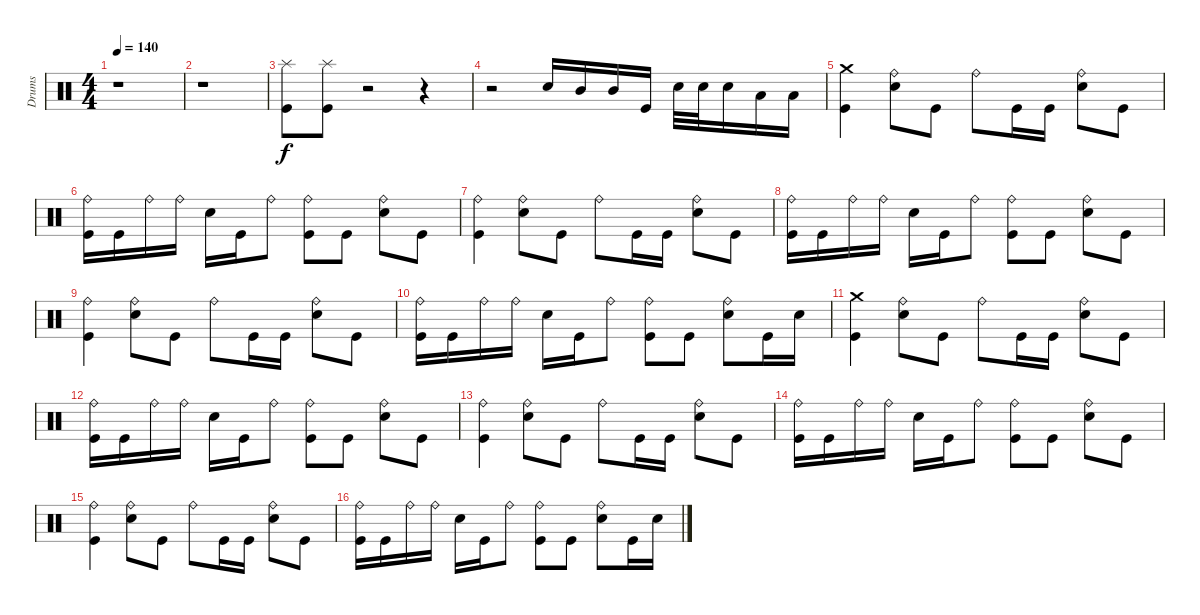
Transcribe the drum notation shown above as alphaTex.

\track ("Drums" "Drums") {instrument percussion}
\staff {score}
\articulation defaults
\ts (4 4)
\tempo 140
\clef neutral
\ks c
r.1{dy f} |
r.1 |
("Kick (hit)" "Splash (hit)").8 ("Kick (hit)" "Splash (hit)").8 r.2 r.4 |
r.2 "Electric Snare (hit)".16 "Mid Tom (hit)".16 "Mid Tom (hit)".16 "Kick (hit)".16 "Electric Snare (hit)".32 "Electric Snare (hit)".32 "Electric Snare (hit)".16 "Low Tom (hit)".16 "Low Tom (hit)".16 |
("Kick (hit)" "Crash medium (hit)").4 ("Electric Snare (hit)" "Ride (bell)").8 "Kick (hit)".8 "Ride (bell)".8 "Kick (hit)".16 "Kick (hit)".16 ("Electric Snare (hit)" "Ride (bell)").8 "Kick (hit)".8 |
("Kick (hit)" "Ride (bell)").16 "Kick (hit)".16 "Ride (bell)".16 "Ride (bell)".16 "Electric Snare (hit)".16 "Kick (hit)".16 "Ride (bell)".8 ("Kick (hit)" "Ride (bell)").8 "Kick (hit)".8 ("Electric Snare (hit)" "Ride (bell)").8 "Kick (hit)".8 |
("Kick (hit)" "Ride (bell)").4 ("Electric Snare (hit)" "Ride (bell)").8 "Kick (hit)".8 "Ride (bell)".8 "Kick (hit)".16 "Kick (hit)".16 ("Electric Snare (hit)" "Ride (bell)").8 "Kick (hit)".8 |
("Kick (hit)" "Ride (bell)").16 "Kick (hit)".16 "Ride (bell)".16 "Ride (bell)".16 "Electric Snare (hit)".16 "Kick (hit)".16 "Ride (bell)".8 ("Kick (hit)" "Ride (bell)").8 "Kick (hit)".8 ("Electric Snare (hit)" "Ride (bell)").8 "Kick (hit)".8 |
("Kick (hit)" "Ride (bell)").4 ("Electric Snare (hit)" "Ride (bell)").8 "Kick (hit)".8 "Ride (bell)".8 "Kick (hit)".16 "Kick (hit)".16 ("Electric Snare (hit)" "Ride (bell)").8 "Kick (hit)".8 |
("Kick (hit)" "Ride (bell)").16 "Kick (hit)".16 "Ride (bell)".16 "Ride (bell)".16 "Electric Snare (hit)".16 "Kick (hit)".16 "Ride (bell)".8 ("Kick (hit)" "Ride (bell)").8 "Kick (hit)".8 ("Electric Snare (hit)" "Ride (bell)").8 "Kick (hit)".16 "Electric Snare (hit)".16 |
("Kick (hit)" "Crash medium (hit)").4 ("Electric Snare (hit)" "Ride (bell)").8 "Kick (hit)".8 "Ride (bell)".8 "Kick (hit)".16 "Kick (hit)".16 ("Electric Snare (hit)" "Ride (bell)").8 "Kick (hit)".8 |
("Kick (hit)" "Ride (bell)").16 "Kick (hit)".16 "Ride (bell)".16 "Ride (bell)".16 "Electric Snare (hit)".16 "Kick (hit)".16 "Ride (bell)".8 ("Kick (hit)" "Ride (bell)").8 "Kick (hit)".8 ("Electric Snare (hit)" "Ride (bell)").8 "Kick (hit)".8 |
("Kick (hit)" "Ride (bell)").4 ("Electric Snare (hit)" "Ride (bell)").8 "Kick (hit)".8 "Ride (bell)".8 "Kick (hit)".16 "Kick (hit)".16 ("Electric Snare (hit)" "Ride (bell)").8 "Kick (hit)".8 |
("Kick (hit)" "Ride (bell)").16 "Kick (hit)".16 "Ride (bell)".16 "Ride (bell)".16 "Electric Snare (hit)".16 "Kick (hit)".16 "Ride (bell)".8 ("Kick (hit)" "Ride (bell)").8 "Kick (hit)".8 ("Electric Snare (hit)" "Ride (bell)").8 "Kick (hit)".8 |
("Kick (hit)" "Ride (bell)").4 ("Electric Snare (hit)" "Ride (bell)").8 "Kick (hit)".8 "Ride (bell)".8 "Kick (hit)".16 "Kick (hit)".16 ("Electric Snare (hit)" "Ride (bell)").8 "Kick (hit)".8 |
("Kick (hit)" "Ride (bell)").16 "Kick (hit)".16 "Ride (bell)".16 "Ride (bell)".16 "Electric Snare (hit)".16 "Kick (hit)".16 "Ride (bell)".8 ("Kick (hit)" "Ride (bell)").8 "Kick (hit)".8 ("Electric Snare (hit)" "Ride (bell)").8 "Kick (hit)".16 "Electric Snare (hit)".16
